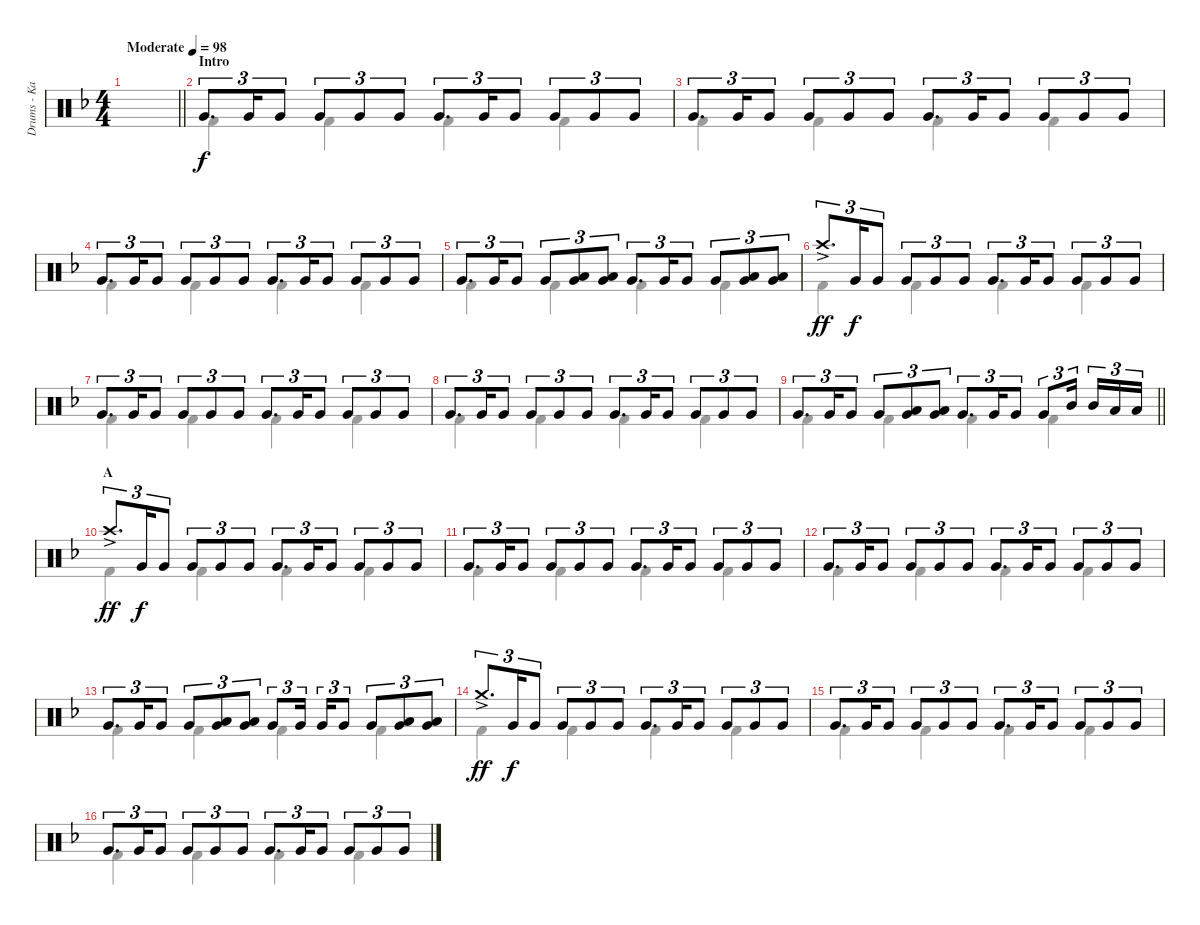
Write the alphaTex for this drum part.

\track ("Drums - Kai" "Drums - Ka") {instrument percussion}
\staff {score}
\articulation defaults
\voice
\ts (4 4)
\tempo (98 "Moderate")
\clef neutral
\barLineRight lightlight
\ks f
|
\section ("" "Intro")
"Very Low Tom (hit)".8{d tu (3 2)} "Very Low Tom (hit)".16{tu (3 2)} "Very Low Tom (hit)".8{tu (3 2)} "Very Low Tom (hit)".8{tu (3 2)} "Very Low Tom (hit)".8{tu (3 2)} "Very Low Tom (hit)".8{tu (3 2)} "Very Low Tom (hit)".8{d tu (3 2)} "Very Low Tom (hit)".16{tu (3 2)} "Very Low Tom (hit)".8{tu (3 2)} "Very Low Tom (hit)".8{tu (3 2)} "Very Low Tom (hit)".8{tu (3 2)} "Very Low Tom (hit)".8{tu (3 2)} |
"Very Low Tom (hit)".8{d tu (3 2)} "Very Low Tom (hit)".16{tu (3 2)} "Very Low Tom (hit)".8{tu (3 2)} "Very Low Tom (hit)".8{tu (3 2)} "Very Low Tom (hit)".8{tu (3 2)} "Very Low Tom (hit)".8{tu (3 2)} "Very Low Tom (hit)".8{d tu (3 2)} "Very Low Tom (hit)".16{tu (3 2)} "Very Low Tom (hit)".8{tu (3 2)} "Very Low Tom (hit)".8{tu (3 2)} "Very Low Tom (hit)".8{tu (3 2)} "Very Low Tom (hit)".8{tu (3 2)} |
"Very Low Tom (hit)".8{d tu (3 2)} "Very Low Tom (hit)".16{tu (3 2)} "Very Low Tom (hit)".8{tu (3 2)} "Very Low Tom (hit)".8{tu (3 2)} "Very Low Tom (hit)".8{tu (3 2)} "Very Low Tom (hit)".8{tu (3 2)} "Very Low Tom (hit)".8{d tu (3 2)} "Very Low Tom (hit)".16{tu (3 2)} "Very Low Tom (hit)".8{tu (3 2)} "Very Low Tom (hit)".8{tu (3 2)} "Very Low Tom (hit)".8{tu (3 2)} "Very Low Tom (hit)".8{tu (3 2)} |
"Very Low Tom (hit)".8{d tu (3 2)} "Very Low Tom (hit)".16{tu (3 2)} "Very Low Tom (hit)".8{tu (3 2)} "Very Low Tom (hit)".8{tu (3 2)} ("Very Low Tom (hit)" "Low Floor Tom (hit)").8{tu (3 2)} ("Very Low Tom (hit)" "Low Floor Tom (hit)").8{tu (3 2)} "Very Low Tom (hit)".8{d tu (3 2)} "Very Low Tom (hit)".16{tu (3 2)} "Very Low Tom (hit)".8{tu (3 2)} "Very Low Tom (hit)".8{tu (3 2)} ("Low Tom (hit)" "Very Low Tom (hit)").8{tu (3 2)} ("Low Tom (hit)" "Very Low Tom (hit)").8{tu (3 2)} |
"Crash high (hit)"{ac}.8{d tu (3 2) dy ff} "Very Low Tom (hit)".16{tu (3 2) dy f} "Very Low Tom (hit)".8{tu (3 2)} "Very Low Tom (hit)".8{tu (3 2)} "Very Low Tom (hit)".8{tu (3 2)} "Very Low Tom (hit)".8{tu (3 2)} "Very Low Tom (hit)".8{d tu (3 2)} "Very Low Tom (hit)".16{tu (3 2)} "Very Low Tom (hit)".8{tu (3 2)} "Very Low Tom (hit)".8{tu (3 2)} "Very Low Tom (hit)".8{tu (3 2)} "Very Low Tom (hit)".8{tu (3 2)} |
"Very Low Tom (hit)".8{d tu (3 2)} "Very Low Tom (hit)".16{tu (3 2)} "Very Low Tom (hit)".8{tu (3 2)} "Very Low Tom (hit)".8{tu (3 2)} "Very Low Tom (hit)".8{tu (3 2)} "Very Low Tom (hit)".8{tu (3 2)} "Very Low Tom (hit)".8{d tu (3 2)} "Very Low Tom (hit)".16{tu (3 2)} "Very Low Tom (hit)".8{tu (3 2)} "Very Low Tom (hit)".8{tu (3 2)} "Very Low Tom (hit)".8{tu (3 2)} "Very Low Tom (hit)".8{tu (3 2)} |
"Very Low Tom (hit)".8{d tu (3 2)} "Very Low Tom (hit)".16{tu (3 2)} "Very Low Tom (hit)".8{tu (3 2)} "Very Low Tom (hit)".8{tu (3 2)} "Very Low Tom (hit)".8{tu (3 2)} "Very Low Tom (hit)".8{tu (3 2)} "Very Low Tom (hit)".8{d tu (3 2)} "Very Low Tom (hit)".16{tu (3 2)} "Very Low Tom (hit)".8{tu (3 2)} "Very Low Tom (hit)".8{tu (3 2)} "Very Low Tom (hit)".8{tu (3 2)} "Very Low Tom (hit)".8{tu (3 2)} |
\barLineRight lightlight "Very Low Tom (hit)".8{d tu (3 2)} "Very Low Tom (hit)".16{tu (3 2)} "Very Low Tom (hit)".8{tu (3 2)} "Very Low Tom (hit)".8{tu (3 2)}
("Very Low Tom (hit)" "Low Floor Tom (hit)").8{tu (3 2)} ("Very Low Tom (hit)" "Low Floor Tom (hit)").8{tu (3 2)} "Very Low Tom (hit)".8{d tu (3 2)} "Very Low Tom (hit)".16{tu (3 2)} "Very Low Tom (hit)".8{tu (3 2)} "Very Low Tom (hit)".8{tu (3 2)} "Mid Tom (hit)".16{tu (3 2) beam splitsecondary} "Mid Tom (hit)".16{tu (3 2)} "Low Tom (hit)".16{tu (3 2)} "Low Tom (hit)".16{tu (3 2)} |
\section ("" "A")
"Crash high (hit)"{ac}.8{d tu (3 2) dy ff} "Very Low Tom (hit)".16{tu (3 2) dy f} "Very Low Tom (hit)".8{tu (3 2)} "Very Low Tom (hit)".8{tu (3 2)} "Very Low Tom (hit)".8{tu (3 2)} "Very Low Tom (hit)".8{tu (3 2)} "Very Low Tom (hit)".8{d tu (3 2)} "Very Low Tom (hit)".16{tu (3 2)} "Very Low Tom (hit)".8{tu (3 2)} "Very Low Tom (hit)".8{tu (3 2)} "Very Low Tom (hit)".8{tu (3 2)} "Very Low Tom (hit)".8{tu (3 2)} |
"Very Low Tom (hit)".8{d tu (3 2)} "Very Low Tom (hit)".16{tu (3 2)} "Very Low Tom (hit)".8{tu (3 2)} "Very Low Tom (hit)".8{tu (3 2)} "Very Low Tom (hit)".8{tu (3 2)} "Very Low Tom (hit)".8{tu (3 2)} "Very Low Tom (hit)".8{d tu (3 2)} "Very Low Tom (hit)".16{tu (3 2)} "Very Low Tom (hit)".8{tu (3 2)} "Very Low Tom (hit)".8{tu (3 2)} "Very Low Tom (hit)".8{tu (3 2)} "Very Low Tom (hit)".8{tu (3 2)} |
"Very Low Tom (hit)".8{d tu (3 2)} "Very Low Tom (hit)".16{tu (3 2)} "Very Low Tom (hit)".8{tu (3 2)} "Very Low Tom (hit)".8{tu (3 2)} "Very Low Tom (hit)".8{tu (3 2)} "Very Low Tom (hit)".8{tu (3 2)} "Very Low Tom (hit)".8{d tu (3 2)} "Very Low Tom (hit)".16{tu (3 2)} "Very Low Tom (hit)".8{tu (3 2)} "Very Low Tom (hit)".8{tu (3 2)} "Very Low Tom (hit)".8{tu (3 2)} "Very Low Tom (hit)".8{tu (3 2)} |
"Very Low Tom (hit)".8{d tu (3 2)} "Very Low Tom (hit)".16{tu (3 2)} "Very Low Tom (hit)".8{tu (3 2)} "Very Low Tom (hit)".8{tu (3 2)} ("Very Low Tom (hit)" "Low Floor Tom (hit)").8{tu (3 2)} ("Very Low Tom (hit)" "Low Floor Tom (hit)").8{tu (3 2)} "Very Low Tom (hit)".8{tu (3 2)} "Very Low Tom (hit)".16{tu (3 2) beam splitsecondary} "Very Low Tom (hit)".16{tu (3 2)} "Very Low Tom (hit)".8{tu (3 2)} "Very Low Tom (hit)".8{tu (3 2)} ("Low Tom (hit)" "Very Low Tom (hit)").8{tu (3 2)} ("Low Tom (hit)" "Very Low Tom (hit)").8{tu (3 2)} |
"Crash medium (hit)"{ac}.8{d tu (3 2) dy ff} "Very Low Tom (hit)".16{tu (3 2) dy f} "Very Low Tom (hit)".8{tu (3 2)} "Very Low Tom (hit)".8{tu (3 2)} "Very Low Tom (hit)".8{tu (3 2)} "Very Low Tom (hit)".8{tu (3 2)} "Very Low Tom (hit)".8{d tu (3 2)} "Very Low Tom (hit)".16{tu (3 2)} "Very Low Tom (hit)".8{tu (3 2)} "Very Low Tom (hit)".8{tu (3 2)} "Very Low Tom (hit)".8{tu (3 2)} "Very Low Tom (hit)".8{tu (3 2)} |
"Very Low Tom (hit)".8{d tu (3 2)} "Very Low Tom (hit)".16{tu (3 2)} "Very Low Tom (hit)".8{tu (3 2)} "Very Low Tom (hit)".8{tu (3 2)} "Very Low Tom (hit)".8{tu (3 2)} "Very Low Tom (hit)".8{tu (3 2)} "Very Low Tom (hit)".8{d tu (3 2)} "Very Low Tom (hit)".16{tu (3 2)} "Very Low Tom (hit)".8{tu (3 2)} "Very Low Tom (hit)".8{tu (3 2)} "Very Low Tom (hit)".8{tu (3 2)} "Very Low Tom (hit)".8{tu (3 2)} |
"Very Low Tom (hit)".8{d tu (3 2)} "Very Low Tom (hit)".16{tu (3 2)} "Very Low Tom (hit)".8{tu (3 2)} "Very Low Tom (hit)".8{tu (3 2)} "Very Low Tom (hit)".8{tu (3 2)} "Very Low Tom (hit)".8{tu (3 2)} "Very Low Tom (hit)".8{d tu (3 2)} "Very Low Tom (hit)".16{tu (3 2)} "Very Low Tom (hit)".8{tu (3 2)} "Very Low Tom (hit)".8{tu (3 2)} "Very Low Tom (hit)".8{tu (3 2)} "Very Low Tom (hit)".8{tu (3 2)}
\voice
\clef neutral
\ottava regular
\simile none
\barLineRight lightlight
\ks f
|
"Kick (hit) 2".4 "Kick (hit) 2".4 "Kick (hit) 2".4 "Kick (hit) 2".4 |
"Kick (hit) 2".4 "Kick (hit) 2".4 "Kick (hit) 2".4 "Kick (hit) 2".4 |
"Kick (hit) 2".4 "Kick (hit) 2".4 "Kick (hit) 2".4 "Kick (hit) 2".4 |
"Kick (hit) 2".4 "Kick (hit) 2".4 "Kick (hit) 2".4 "Kick (hit) 2".4 |
"Kick (hit) 2".4 "Kick (hit) 2".4 "Kick (hit) 2".4 "Kick (hit) 2".4 |
"Kick (hit) 2".4 "Kick (hit) 2".4 "Kick (hit) 2".4 "Kick (hit) 2".4 |
"Kick (hit) 2".4 "Kick (hit) 2".4 "Kick (hit) 2".4 "Kick (hit) 2".4 |
\barLineRight lightlight "Kick (hit) 2".4 "Kick (hit) 2".4 "Kick (hit) 2".4 "Kick (hit) 2".4
|
"Kick (hit) 2".4 "Kick (hit) 2".4 "Kick (hit) 2".4 "Kick (hit) 2".4 |
"Kick (hit) 2".4 "Kick (hit) 2".4 "Kick (hit) 2".4 "Kick (hit) 2".4 |
"Kick (hit) 2".4 "Kick (hit) 2".4 "Kick (hit) 2".4 "Kick (hit) 2".4 |
"Kick (hit) 2".4 "Kick (hit) 2".4 "Kick (hit) 2".4 "Kick (hit) 2".4 |
"Kick (hit) 2".4 "Kick (hit) 2".4 "Kick (hit) 2".4 "Kick (hit) 2".4 |
"Kick (hit) 2".4 "Kick (hit) 2".4 "Kick (hit) 2".4 "Kick (hit) 2".4 |
"Kick (hit) 2".4 "Kick (hit) 2".4 "Kick (hit) 2".4 "Kick (hit) 2".4
